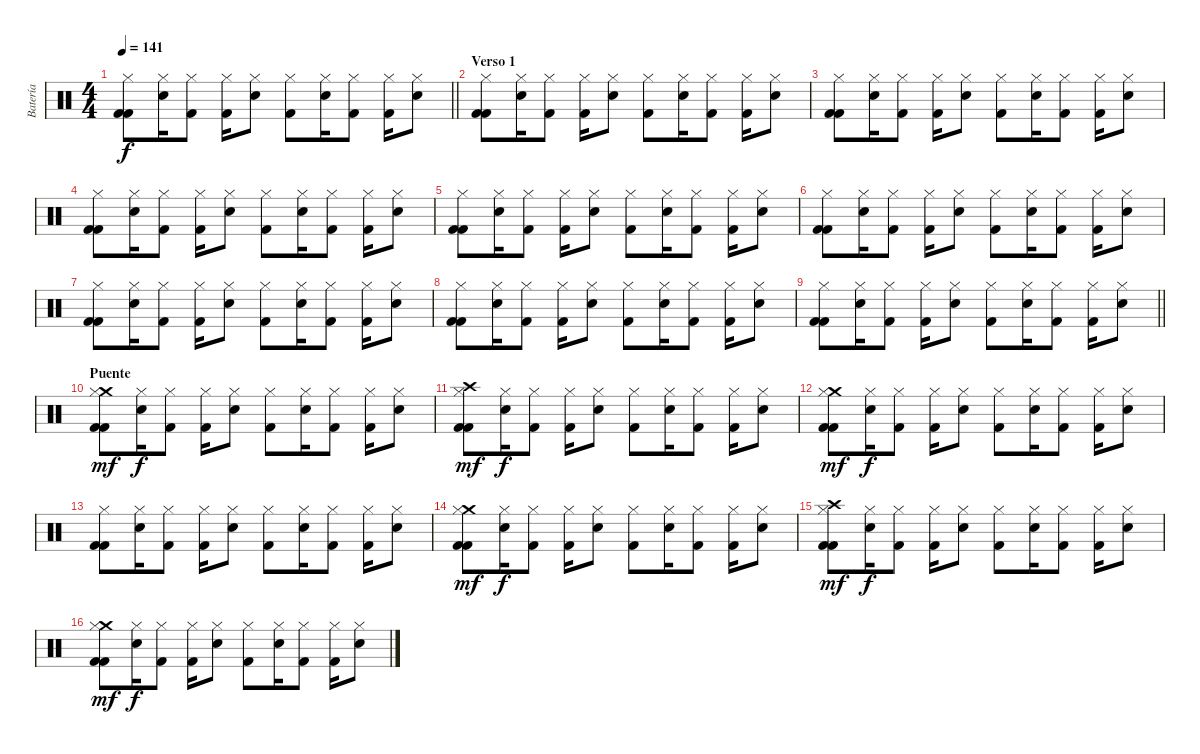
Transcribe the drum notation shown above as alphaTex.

\track ("Batería" "Batería") {instrument percussion}
\staff {score}
\articulation defaults
\ts (4 4)
\tempo 141
\clef neutral
\barLineRight lightlight
\ks c
("Hi-Hat (closed)" "Kick (hit) 2" "Kick (hit) 2").8{dy f} ("Hi-Hat (closed)" "Electric Snare (hit)").16 ("Hi-Hat (closed)" "Kick (hit) 2").8 ("Hi-Hat (closed)" "Kick (hit) 2").16 ("Hi-Hat (closed)" "Electric Snare (hit)").8 ("Hi-Hat (closed)" "Kick (hit) 2").8 ("Hi-Hat (closed)" "Electric Snare (hit)").16 ("Hi-Hat (closed)" "Kick (hit) 2").8 ("Hi-Hat (closed)" "Kick (hit) 2").16 ("Hi-Hat (closed)" "Electric Snare (hit)").8 |
\section ("" "Verso 1")
("Hi-Hat (closed)" "Kick (hit) 2" "Kick (hit) 2").8 ("Hi-Hat (closed)" "Electric Snare (hit)").16 ("Hi-Hat (closed)" "Kick (hit) 2").8 ("Hi-Hat (closed)" "Kick (hit) 2").16 ("Hi-Hat (closed)" "Electric Snare (hit)").8 ("Hi-Hat (closed)" "Kick (hit) 2").8 ("Hi-Hat (closed)" "Electric Snare (hit)").16 ("Hi-Hat (closed)" "Kick (hit) 2").8 ("Hi-Hat (closed)" "Kick (hit) 2").16 ("Hi-Hat (closed)" "Electric Snare (hit)").8 |
("Hi-Hat (closed)" "Kick (hit) 2" "Kick (hit) 2").8 ("Hi-Hat (closed)" "Electric Snare (hit)").16 ("Hi-Hat (closed)" "Kick (hit) 2").8 ("Hi-Hat (closed)" "Kick (hit) 2").16 ("Hi-Hat (closed)" "Electric Snare (hit)").8 ("Hi-Hat (closed)" "Kick (hit) 2").8 ("Hi-Hat (closed)" "Electric Snare (hit)").16 ("Hi-Hat (closed)" "Kick (hit) 2").8 ("Hi-Hat (closed)" "Kick (hit) 2").16 ("Hi-Hat (closed)" "Electric Snare (hit)").8 |
("Hi-Hat (closed)" "Kick (hit) 2" "Kick (hit) 2").8 ("Hi-Hat (closed)" "Electric Snare (hit)").16 ("Hi-Hat (closed)" "Kick (hit) 2").8 ("Hi-Hat (closed)" "Kick (hit) 2").16 ("Hi-Hat (closed)" "Electric Snare (hit)").8 ("Hi-Hat (closed)" "Kick (hit) 2").8 ("Hi-Hat (closed)" "Electric Snare (hit)").16 ("Hi-Hat (closed)" "Kick (hit) 2").8 ("Hi-Hat (closed)" "Kick (hit) 2").16 ("Hi-Hat (closed)" "Electric Snare (hit)").8 |
("Hi-Hat (closed)" "Kick (hit) 2" "Kick (hit) 2").8 ("Hi-Hat (closed)" "Electric Snare (hit)").16 ("Hi-Hat (closed)" "Kick (hit) 2").8 ("Hi-Hat (closed)" "Kick (hit) 2").16 ("Hi-Hat (closed)" "Electric Snare (hit)").8 ("Hi-Hat (closed)" "Kick (hit) 2").8 ("Hi-Hat (closed)" "Electric Snare (hit)").16 ("Hi-Hat (closed)" "Kick (hit) 2").8 ("Hi-Hat (closed)" "Kick (hit) 2").16 ("Hi-Hat (closed)" "Electric Snare (hit)").8 |
("Hi-Hat (closed)" "Kick (hit) 2" "Kick (hit) 2").8 ("Hi-Hat (closed)" "Electric Snare (hit)").16 ("Hi-Hat (closed)" "Kick (hit) 2").8 ("Hi-Hat (closed)" "Kick (hit) 2").16 ("Hi-Hat (closed)" "Electric Snare (hit)").8 ("Hi-Hat (closed)" "Kick (hit) 2").8 ("Hi-Hat (closed)" "Electric Snare (hit)").16 ("Hi-Hat (closed)" "Kick (hit) 2").8 ("Hi-Hat (closed)" "Kick (hit) 2").16 ("Hi-Hat (closed)" "Electric Snare (hit)").8 |
("Hi-Hat (closed)" "Kick (hit) 2" "Kick (hit) 2").8 ("Hi-Hat (closed)" "Electric Snare (hit)").16 ("Hi-Hat (closed)" "Kick (hit) 2").8 ("Hi-Hat (closed)" "Kick (hit) 2").16 ("Hi-Hat (closed)" "Electric Snare (hit)").8 ("Hi-Hat (closed)" "Kick (hit) 2").8 ("Hi-Hat (closed)" "Electric Snare (hit)").16 ("Hi-Hat (closed)" "Kick (hit) 2").8 ("Hi-Hat (closed)" "Kick (hit) 2").16 ("Hi-Hat (closed)" "Electric Snare (hit)").8 |
("Hi-Hat (closed)" "Kick (hit) 2" "Kick (hit) 2").8 ("Hi-Hat (closed)" "Electric Snare (hit)").16 ("Hi-Hat (closed)" "Kick (hit) 2").8 ("Hi-Hat (closed)" "Kick (hit) 2").16 ("Hi-Hat (closed)" "Electric Snare (hit)").8 ("Hi-Hat (closed)" "Kick (hit) 2").8 ("Hi-Hat (closed)" "Electric Snare (hit)").16 ("Hi-Hat (closed)" "Kick (hit) 2").8 ("Hi-Hat (closed)" "Kick (hit) 2").16 ("Hi-Hat (closed)" "Electric Snare (hit)").8 |
\barLineRight lightlight
("Hi-Hat (closed)" "Kick (hit) 2" "Kick (hit) 2").8 ("Hi-Hat (closed)" "Electric Snare (hit)").16 ("Hi-Hat (closed)" "Kick (hit) 2").8 ("Hi-Hat (closed)" "Kick (hit) 2").16 ("Hi-Hat (closed)" "Electric Snare (hit)").8 ("Hi-Hat (closed)" "Kick (hit) 2").8 ("Hi-Hat (closed)" "Electric Snare (hit)").16 ("Hi-Hat (closed)" "Kick (hit) 2").8 ("Hi-Hat (closed)" "Kick (hit) 2").16 ("Hi-Hat (closed)" "Electric Snare (hit)").8 |
\section ("" "Puente")
("Crash medium (hit)" "Hi-Hat (closed)" "Kick (hit) 2" "Kick (hit) 2").8{dy mf} ("Hi-Hat (closed)" "Electric Snare (hit)").16{dy f} ("Hi-Hat (closed)" "Kick (hit) 2").8 ("Hi-Hat (closed)" "Kick (hit) 2").16 ("Hi-Hat (closed)" "Electric Snare (hit)").8 ("Hi-Hat (closed)" "Kick (hit) 2").8 ("Hi-Hat (closed)" "Electric Snare (hit)").16 ("Hi-Hat (closed)" "Kick (hit) 2").8 ("Hi-Hat (closed)" "Kick (hit) 2").16 ("Hi-Hat (closed)" "Electric Snare (hit)").8 |
("Crash high (hit)" "Hi-Hat (closed)" "Kick (hit) 2" "Kick (hit) 2").8{dy mf} ("Hi-Hat (closed)" "Electric Snare (hit)").16{dy f} ("Hi-Hat (closed)" "Kick (hit) 2").8 ("Hi-Hat (closed)" "Kick (hit) 2").16 ("Hi-Hat (closed)" "Electric Snare (hit)").8 ("Hi-Hat (closed)" "Kick (hit) 2").8 ("Hi-Hat (closed)" "Electric Snare (hit)").16 ("Hi-Hat (closed)" "Kick (hit) 2").8 ("Hi-Hat (closed)" "Kick (hit) 2").16 ("Hi-Hat (closed)" "Electric Snare (hit)").8 |
("Crash medium (hit)" "Hi-Hat (closed)" "Kick (hit) 2" "Kick (hit) 2").8{dy mf} ("Hi-Hat (closed)" "Electric Snare (hit)").16{dy f} ("Hi-Hat (closed)" "Kick (hit) 2").8 ("Hi-Hat (closed)" "Kick (hit) 2").16 ("Hi-Hat (closed)" "Electric Snare (hit)").8 ("Hi-Hat (closed)" "Kick (hit) 2").8 ("Hi-Hat (closed)" "Electric Snare (hit)").16 ("Hi-Hat (closed)" "Kick (hit) 2").8 ("Hi-Hat (closed)" "Kick (hit) 2").16 ("Hi-Hat (closed)" "Electric Snare (hit)").8 |
("Hi-Hat (closed)" "Kick (hit) 2" "Kick (hit) 2").8 ("Hi-Hat (closed)" "Electric Snare (hit)").16 ("Hi-Hat (closed)" "Kick (hit) 2").8 ("Hi-Hat (closed)" "Kick (hit) 2").16 ("Hi-Hat (closed)" "Electric Snare (hit)").8 ("Hi-Hat (closed)" "Kick (hit) 2").8 ("Hi-Hat (closed)" "Electric Snare (hit)").16 ("Hi-Hat (closed)" "Kick (hit) 2").8 ("Hi-Hat (closed)" "Kick (hit) 2").16 ("Hi-Hat (closed)" "Electric Snare (hit)").8 |
("Crash medium (hit)" "Hi-Hat (closed)" "Kick (hit) 2" "Kick (hit) 2").8{dy mf} ("Hi-Hat (closed)" "Electric Snare (hit)").16{dy f} ("Hi-Hat (closed)" "Kick (hit) 2").8 ("Hi-Hat (closed)" "Kick (hit) 2").16 ("Hi-Hat (closed)" "Electric Snare (hit)").8 ("Hi-Hat (closed)" "Kick (hit) 2").8 ("Hi-Hat (closed)" "Electric Snare (hit)").16 ("Hi-Hat (closed)" "Kick (hit) 2").8 ("Hi-Hat (closed)" "Kick (hit) 2").16 ("Hi-Hat (closed)" "Electric Snare (hit)").8 |
("Crash high (hit)" "Hi-Hat (closed)" "Kick (hit) 2" "Kick (hit) 2").8{dy mf} ("Hi-Hat (closed)" "Electric Snare (hit)").16{dy f} ("Hi-Hat (closed)" "Kick (hit) 2").8 ("Hi-Hat (closed)" "Kick (hit) 2").16 ("Hi-Hat (closed)" "Electric Snare (hit)").8 ("Hi-Hat (closed)" "Kick (hit) 2").8 ("Hi-Hat (closed)" "Electric Snare (hit)").16 ("Hi-Hat (closed)" "Kick (hit) 2").8 ("Hi-Hat (closed)" "Kick (hit) 2").16 ("Hi-Hat (closed)" "Electric Snare (hit)").8 |
("Crash medium (hit)" "Hi-Hat (closed)" "Kick (hit) 2" "Kick (hit) 2").8{dy mf} ("Hi-Hat (closed)" "Electric Snare (hit)").16{dy f} ("Hi-Hat (closed)" "Kick (hit) 2").8 ("Hi-Hat (closed)" "Kick (hit) 2").16 ("Hi-Hat (closed)" "Electric Snare (hit)").8 ("Hi-Hat (closed)" "Kick (hit) 2").8 ("Hi-Hat (closed)" "Electric Snare (hit)").16 ("Hi-Hat (closed)" "Kick (hit) 2").8 ("Hi-Hat (closed)" "Kick (hit) 2").16 ("Hi-Hat (closed)" "Electric Snare (hit)").8
